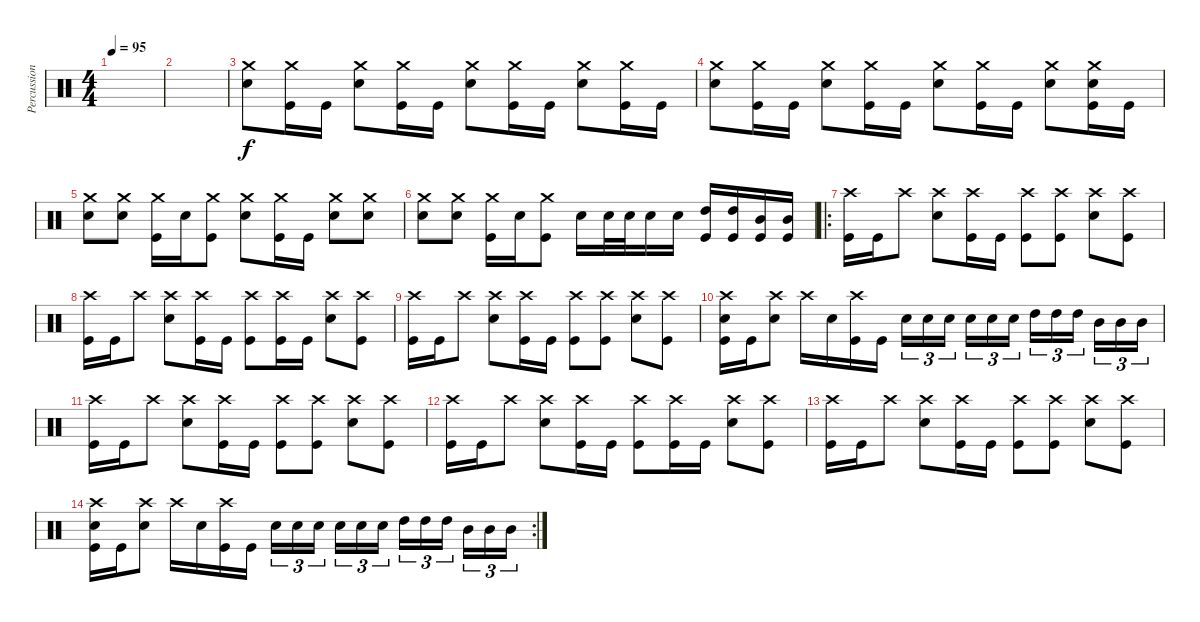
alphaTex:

\track ("Percussion" "Percussion") {instrument percussion}
\staff {score}
\articulation defaults
\ts (4 4)
\tempo 95
\clef neutral
\ks c
|
|
("Crash medium (hit)" "Snare (hit) 2").8 ("Crash medium (hit)" "Kick (hit)").16 "Kick (hit)".16 ("Crash medium (hit)" "Snare (hit) 2").8 ("Crash medium (hit)" "Kick (hit)").16 "Kick (hit)".16 ("Crash medium (hit)" "Snare (hit) 2").8 ("Crash medium (hit)" "Kick (hit)").16 "Kick (hit)".16 ("Crash medium (hit)" "Snare (hit) 2").8 ("Crash medium (hit)" "Kick (hit)").16 "Kick (hit)".16 |
("Crash medium (hit)" "Snare (hit) 2").8 ("Crash medium (hit)" "Kick (hit)").16 "Kick (hit)".16 ("Crash medium (hit)" "Snare (hit) 2").8 ("Crash medium (hit)" "Kick (hit)").16 "Kick (hit)".16 ("Crash medium (hit)" "Snare (hit) 2").8 ("Crash medium (hit)" "Kick (hit)").16 "Kick (hit)".16 ("Crash medium (hit)" "Snare (hit) 2").8 ("Crash medium (hit)" "Snare (hit) 2" "Kick (hit)").16 "Kick (hit)".16 |
("Crash medium (hit)" "Snare (hit) 2").8 ("Crash medium (hit)" "Snare (hit) 2").8 ("Crash medium (hit)" "Kick (hit)").16 "Snare (hit) 2".16 ("Crash medium (hit)" "Kick (hit)").8 ("Crash medium (hit)" "Snare (hit) 2").8 ("Crash medium (hit)" "Kick (hit)").16 "Kick (hit)".16 ("Crash medium (hit)" "Snare (hit) 2").8 ("Crash medium (hit)" "Snare (hit) 2").8 |
("Crash medium (hit)" "Snare (hit) 2").8 ("Crash medium (hit)" "Snare (hit) 2").8 ("Crash medium (hit)" "Kick (hit)").16 "Snare (hit) 2".16 ("Crash medium (hit)" "Kick (hit)").8 "Snare (hit) 2".16 "Snare (hit) 2".32 "Snare (hit) 2".32 "Snare (hit) 2".16 "Snare (hit) 2".16 ("High Tom (hit)" "Kick (hit)").16 ("High Tom (hit)" "Kick (hit)").16 ("Mid Tom (hit)" "Kick (hit)").16 ("Mid Tom (hit)" "Kick (hit)").16 |
\ro
("Crash high (hit)" "Kick (hit)").16 "Kick (hit)".16 "Crash high (hit)".8 ("Crash high (hit)" "Snare (hit) 2").8 ("Crash high (hit)" "Kick (hit)").16 "Kick (hit)".16 ("Crash high (hit)" "Kick (hit)").8 ("Crash high (hit)" "Kick (hit)").8 ("Crash high (hit)" "Snare (hit) 2").8 ("Crash high (hit)" "Kick (hit)").8 |
("Crash high (hit)" "Kick (hit)").16 "Kick (hit)".16 "Crash high (hit)".8 ("Crash high (hit)" "Snare (hit) 2").8 ("Crash high (hit)" "Kick (hit)").16 "Kick (hit)".16 ("Crash high (hit)" "Kick (hit)").8 ("Crash high (hit)" "Kick (hit)").16 "Kick (hit)".16 ("Crash high (hit)" "Snare (hit) 2").8 ("Crash high (hit)" "Kick (hit)").8 |
("Crash high (hit)" "Kick (hit)").16 "Kick (hit)".16 "Crash high (hit)".8 ("Crash high (hit)" "Snare (hit) 2").8 ("Crash high (hit)" "Kick (hit)").16 "Kick (hit)".16 ("Crash high (hit)" "Kick (hit)").8 ("Crash high (hit)" "Kick (hit)").8 ("Crash high (hit)" "Snare (hit) 2").8 ("Crash high (hit)" "Kick (hit)").8 |
("Crash high (hit)" "Snare (hit) 2" "Kick (hit)").16 "Kick (hit)".16 ("Crash high (hit)" "Snare (hit) 2").8 "Crash high (hit)".16 "Snare (hit) 2".16 ("Crash high (hit)" "Kick (hit)").16 "Kick (hit)".16 "Snare (hit) 2".16{tu (3 2)} "Snare (hit) 2".16{tu (3 2)} "Snare (hit) 2".16{tu (3 2) beam splitsecondary} "Snare (hit) 2".16{tu (3 2)} "Snare (hit) 2".16{tu (3 2)} "Snare (hit) 2".16{tu (3 2)} "High Tom (hit)".16{tu (3 2)} "High Tom (hit)".16{tu (3 2)} "High Tom (hit)".16{tu (3 2) beam splitsecondary} "Mid Tom (hit)".16{tu (3 2)} "Mid Tom (hit)".16{tu (3 2)} "Mid Tom (hit)".16{tu (3 2)} |
("Crash high (hit)" "Kick (hit)").16 "Kick (hit)".16 "Crash high (hit)".8 ("Crash high (hit)" "Snare (hit) 2").8 ("Crash high (hit)" "Kick (hit)").16 "Kick (hit)".16 ("Crash high (hit)" "Kick (hit)").8 ("Crash high (hit)" "Kick (hit)").8 ("Crash high (hit)" "Snare (hit) 2").8 ("Crash high (hit)" "Kick (hit)").8 |
("Crash high (hit)" "Kick (hit)").16 "Kick (hit)".16 "Crash high (hit)".8 ("Crash high (hit)" "Snare (hit) 2").8 ("Crash high (hit)" "Kick (hit)").16 "Kick (hit)".16 ("Crash high (hit)" "Kick (hit)").8 ("Crash high (hit)" "Kick (hit)").16 "Kick (hit)".16 ("Crash high (hit)" "Snare (hit) 2").8 ("Crash high (hit)" "Kick (hit)").8 |
("Crash high (hit)" "Kick (hit)").16 "Kick (hit)".16 "Crash high (hit)".8 ("Crash high (hit)" "Snare (hit) 2").8 ("Crash high (hit)" "Kick (hit)").16 "Kick (hit)".16 ("Crash high (hit)" "Kick (hit)").8 ("Crash high (hit)" "Kick (hit)").8 ("Crash high (hit)" "Snare (hit) 2").8 ("Crash high (hit)" "Kick (hit)").8 |
\rc 2
("Crash high (hit)" "Snare (hit) 2" "Kick (hit)").16 "Kick (hit)".16 ("Crash high (hit)" "Snare (hit) 2").8 "Crash high (hit)".16 "Snare (hit) 2".16 ("Crash high (hit)" "Kick (hit)").16 "Kick (hit)".16 "Snare (hit) 2".16{tu (3 2)} "Snare (hit) 2".16{tu (3 2)} "Snare (hit) 2".16{tu (3 2) beam splitsecondary} "Snare (hit) 2".16{tu (3 2)} "Snare (hit) 2".16{tu (3 2)} "Snare (hit) 2".16{tu (3 2)} "High Tom (hit)".16{tu (3 2)} "High Tom (hit)".16{tu (3 2)} "High Tom (hit)".16{tu (3 2) beam splitsecondary} "Mid Tom (hit)".16{tu (3 2)} "Mid Tom (hit)".16{tu (3 2)} "Mid Tom (hit)".16{tu (3 2)}
